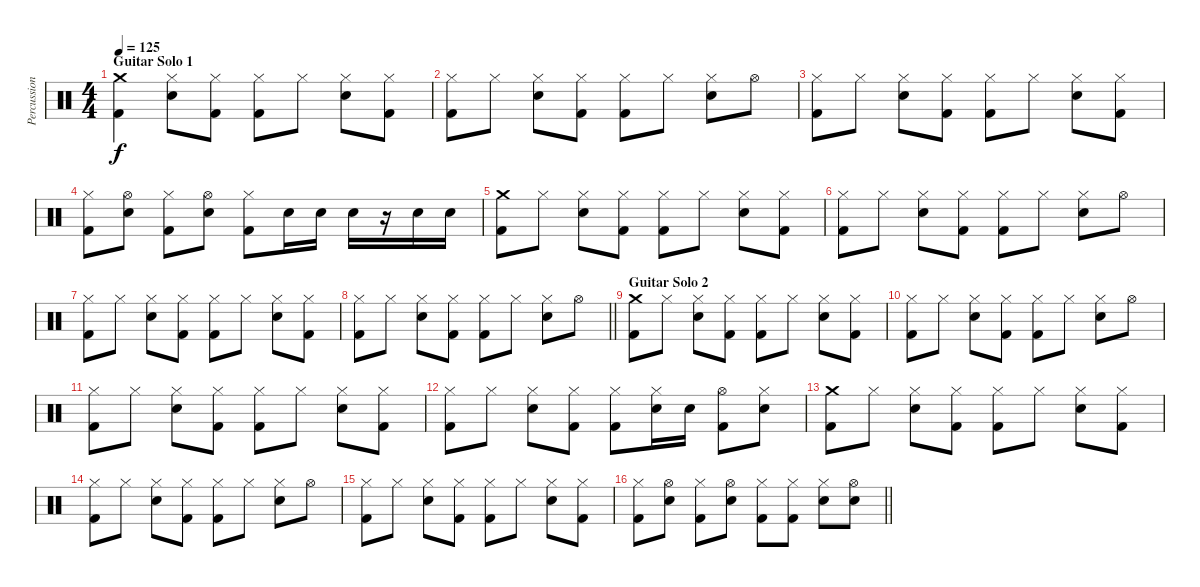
\track ("Percussion" "Percussion") {instrument percussion}
\staff {score}
\articulation defaults
\ts (4 4)
\section ("" "Guitar Solo 1")
\tempo 125
\clef neutral
\ks c
("Crash medium (hit)" "Kick (hit) 2").4{dy f} ("Hi-Hat (closed)" "Electric Snare (hit)").8 ("Hi-Hat (closed)" "Kick (hit) 2").8 ("Hi-Hat (closed)" "Kick (hit) 2").8 "Hi-Hat (closed)".8 ("Hi-Hat (closed)" "Electric Snare (hit)").8 ("Hi-Hat (closed)" "Kick (hit) 2").8 |
("Hi-Hat (closed)" "Kick (hit) 2").8 "Hi-Hat (closed)".8 ("Hi-Hat (closed)" "Electric Snare (hit)").8 ("Hi-Hat (closed)" "Kick (hit) 2").8 ("Hi-Hat (closed)" "Kick (hit) 2").8 "Hi-Hat (closed)".8 ("Hi-Hat (closed)" "Electric Snare (hit)").8 "Hi-Hat (open)".8 |
("Hi-Hat (closed)" "Kick (hit) 2").8 "Hi-Hat (closed)".8 ("Hi-Hat (closed)" "Electric Snare (hit)").8 ("Hi-Hat (closed)" "Kick (hit) 2").8 ("Hi-Hat (closed)" "Kick (hit) 2").8 "Hi-Hat (closed)".8 ("Hi-Hat (closed)" "Electric Snare (hit)").8 ("Hi-Hat (closed)" "Kick (hit) 2").8 |
("Hi-Hat (closed)" "Kick (hit) 2").8 ("Hi-Hat (open)" "Electric Snare (hit)").8 ("Hi-Hat (closed)" "Kick (hit) 2").8 ("Hi-Hat (open)" "Electric Snare (hit)").8 ("Hi-Hat (closed)" "Kick (hit) 2").8 "Electric Snare (hit)".16 "Electric Snare (hit)".16 "Electric Snare (hit)".16 r.16 "Electric Snare (hit)".16 "Electric Snare (hit)".16 |
("Crash medium (hit)" "Kick (hit) 2").8 "Hi-Hat (closed)".8 ("Hi-Hat (closed)" "Electric Snare (hit)").8 ("Hi-Hat (closed)" "Kick (hit) 2").8 ("Hi-Hat (closed)" "Kick (hit) 2").8 "Hi-Hat (closed)".8 ("Hi-Hat (closed)" "Electric Snare (hit)").8 ("Hi-Hat (closed)" "Kick (hit) 2").8 |
("Hi-Hat (closed)" "Kick (hit) 2").8 "Hi-Hat (closed)".8 ("Hi-Hat (closed)" "Electric Snare (hit)").8 ("Hi-Hat (closed)" "Kick (hit) 2").8 ("Hi-Hat (closed)" "Kick (hit) 2").8 "Hi-Hat (closed)".8 ("Hi-Hat (closed)" "Electric Snare (hit)").8 "Hi-Hat (open)".8 |
("Hi-Hat (closed)" "Kick (hit) 2").8 "Hi-Hat (closed)".8 ("Hi-Hat (closed)" "Electric Snare (hit)").8 ("Hi-Hat (closed)" "Kick (hit) 2").8 ("Hi-Hat (closed)" "Kick (hit) 2").8 "Hi-Hat (closed)".8 ("Hi-Hat (closed)" "Electric Snare (hit)").8 ("Hi-Hat (closed)" "Kick (hit) 2").8 |
\barLineRight lightlight
("Hi-Hat (closed)" "Kick (hit) 2").8 "Hi-Hat (closed)".8 ("Hi-Hat (closed)" "Electric Snare (hit)").8 ("Hi-Hat (closed)" "Kick (hit) 2").8 ("Hi-Hat (closed)" "Kick (hit) 2").8 "Hi-Hat (closed)".8 ("Hi-Hat (closed)" "Electric Snare (hit)").8 "Hi-Hat (open)".8 |
\section ("" "Guitar Solo 2")
("Crash medium (hit)" "Kick (hit) 2").8 "Hi-Hat (closed)".8 ("Hi-Hat (closed)" "Electric Snare (hit)").8 ("Hi-Hat (closed)" "Kick (hit) 2").8 ("Hi-Hat (closed)" "Kick (hit) 2").8 "Hi-Hat (closed)".8 ("Hi-Hat (closed)" "Electric Snare (hit)").8 ("Hi-Hat (closed)" "Kick (hit) 2").8 |
("Hi-Hat (closed)" "Kick (hit) 2").8 "Hi-Hat (closed)".8 ("Hi-Hat (closed)" "Electric Snare (hit)").8 ("Hi-Hat (closed)" "Kick (hit) 2").8 ("Hi-Hat (closed)" "Kick (hit) 2").8 "Hi-Hat (closed)".8 ("Hi-Hat (closed)" "Electric Snare (hit)").8 "Hi-Hat (open)".8 |
("Hi-Hat (closed)" "Kick (hit) 2").8 "Hi-Hat (closed)".8 ("Hi-Hat (closed)" "Electric Snare (hit)").8 ("Hi-Hat (closed)" "Kick (hit) 2").8 ("Hi-Hat (closed)" "Kick (hit) 2").8 "Hi-Hat (closed)".8 ("Hi-Hat (closed)" "Electric Snare (hit)").8 ("Hi-Hat (closed)" "Kick (hit) 2").8 |
("Hi-Hat (closed)" "Kick (hit) 2").8 "Hi-Hat (closed)".8 ("Hi-Hat (closed)" "Electric Snare (hit)").8 ("Hi-Hat (closed)" "Kick (hit) 2").8 ("Hi-Hat (closed)" "Kick (hit) 2").8 ("Hi-Hat (closed)" "Electric Snare (hit)").16 "Electric Snare (hit)".16 ("Hi-Hat (open)" "Kick (hit) 2").8 ("Hi-Hat (closed)" "Electric Snare (hit)").8 |
("Crash medium (hit)" "Kick (hit) 2").8 "Hi-Hat (closed)".8 ("Hi-Hat (closed)" "Electric Snare (hit)").8 ("Hi-Hat (closed)" "Kick (hit) 2").8 ("Hi-Hat (closed)" "Kick (hit) 2").8 "Hi-Hat (closed)".8 ("Hi-Hat (closed)" "Electric Snare (hit)").8 ("Hi-Hat (closed)" "Kick (hit) 2").8 |
("Hi-Hat (closed)" "Kick (hit) 2").8 "Hi-Hat (closed)".8 ("Hi-Hat (closed)" "Electric Snare (hit)").8 ("Hi-Hat (closed)" "Kick (hit) 2").8 ("Hi-Hat (closed)" "Kick (hit) 2").8 "Hi-Hat (closed)".8 ("Hi-Hat (closed)" "Electric Snare (hit)").8 "Hi-Hat (open)".8 |
("Hi-Hat (closed)" "Kick (hit) 2").8 "Hi-Hat (closed)".8 ("Hi-Hat (closed)" "Electric Snare (hit)").8 ("Hi-Hat (closed)" "Kick (hit) 2").8 ("Hi-Hat (closed)" "Kick (hit) 2").8 "Hi-Hat (closed)".8 ("Hi-Hat (closed)" "Electric Snare (hit)").8 ("Hi-Hat (closed)" "Kick (hit) 2").8 |
\barLineRight lightlight
("Hi-Hat (closed)" "Kick (hit) 2").8 ("Hi-Hat (open)" "Electric Snare (hit)").8 ("Hi-Hat (closed)" "Kick (hit) 2").8 ("Hi-Hat (open)" "Electric Snare (hit)").8 ("Hi-Hat (closed)" "Kick (hit) 2").8 ("Hi-Hat (closed)" "Kick (hit) 2").8 ("Hi-Hat (closed)" "Electric Snare (hit)").8 ("Hi-Hat (open)" "Electric Snare (hit)").8
